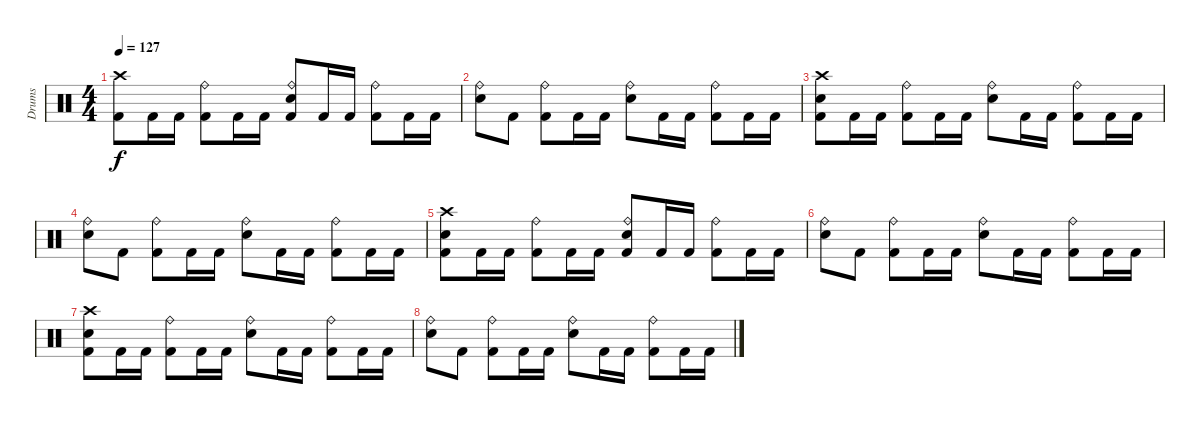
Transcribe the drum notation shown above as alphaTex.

\track ("Drums" "Drums") {instrument percussion}
\staff {score}
\articulation defaults
\ts (4 4)
\tempo 127
\clef neutral
\ks c
("Crash high (hit)" "Kick (hit) 2").8{dy f} "Kick (hit) 2".16 "Kick (hit) 2".16 ("Ride (bell)" "Kick (hit) 2").8 "Kick (hit) 2".16 "Kick (hit) 2".16 ("Ride (bell)" "Snare (hit) 2" "Kick (hit) 2").8 "Kick (hit) 2".16 "Kick (hit) 2".16 ("Ride (bell)" "Kick (hit) 2").8 "Kick (hit) 2".16 "Kick (hit) 2".16 |
("Ride (bell)" "Snare (hit) 2").8 "Kick (hit) 2".8 ("Ride (bell)" "Kick (hit) 2").8 "Kick (hit) 2".16 "Kick (hit) 2".16 ("Ride (bell)" "Snare (hit) 2").8 "Kick (hit) 2".16 "Kick (hit) 2".16 ("Ride (bell)" "Kick (hit) 2").8 "Kick (hit) 2".16 "Kick (hit) 2".16 |
("Crash high (hit)" "Snare (hit) 2" "Kick (hit) 2").8 "Kick (hit) 2".16 "Kick (hit) 2".16 ("Ride (bell)" "Kick (hit) 2").8 "Kick (hit) 2".16 "Kick (hit) 2".16 ("Ride (bell)" "Snare (hit) 2").8 "Kick (hit) 2".16 "Kick (hit) 2".16 ("Ride (bell)" "Kick (hit) 2").8 "Kick (hit) 2".16 "Kick (hit) 2".16 |
("Ride (bell)" "Snare (hit) 2").8 "Kick (hit) 2".8 ("Ride (bell)" "Kick (hit) 2").8 "Kick (hit) 2".16 "Kick (hit) 2".16 ("Ride (bell)" "Snare (hit) 2").8 "Kick (hit) 2".16 "Kick (hit) 2".16 ("Ride (bell)" "Kick (hit) 2").8 "Kick (hit) 2".16 "Kick (hit) 2".16 |
("Crash high (hit)" "Snare (hit) 2" "Kick (hit) 2").8 "Kick (hit) 2".16 "Kick (hit) 2".16 ("Ride (bell)" "Kick (hit) 2").8 "Kick (hit) 2".16 "Kick (hit) 2".16 ("Ride (bell)" "Snare (hit) 2" "Kick (hit) 2").8 "Kick (hit) 2".16 "Kick (hit) 2".16 ("Ride (bell)" "Kick (hit) 2").8 "Kick (hit) 2".16 "Kick (hit) 2".16 |
("Ride (bell)" "Snare (hit) 2").8 "Kick (hit) 2".8 ("Ride (bell)" "Kick (hit) 2").8 "Kick (hit) 2".16 "Kick (hit) 2".16 ("Ride (bell)" "Snare (hit) 2").8 "Kick (hit) 2".16 "Kick (hit) 2".16 ("Ride (bell)" "Kick (hit) 2").8 "Kick (hit) 2".16 "Kick (hit) 2".16 |
("Crash high (hit)" "Snare (hit) 2" "Kick (hit) 2").8 "Kick (hit) 2".16 "Kick (hit) 2".16 ("Ride (bell)" "Kick (hit) 2").8 "Kick (hit) 2".16 "Kick (hit) 2".16 ("Ride (bell)" "Snare (hit) 2").8 "Kick (hit) 2".16 "Kick (hit) 2".16 ("Ride (bell)" "Kick (hit) 2").8 "Kick (hit) 2".16 "Kick (hit) 2".16 |
("Ride (bell)" "Snare (hit) 2").8 "Kick (hit) 2".8 ("Ride (bell)" "Kick (hit) 2").8 "Kick (hit) 2".16 "Kick (hit) 2".16 ("Ride (bell)" "Snare (hit) 2").8 "Kick (hit) 2".16 "Kick (hit) 2".16 ("Ride (bell)" "Kick (hit) 2").8 "Kick (hit) 2".16 "Kick (hit) 2".16
